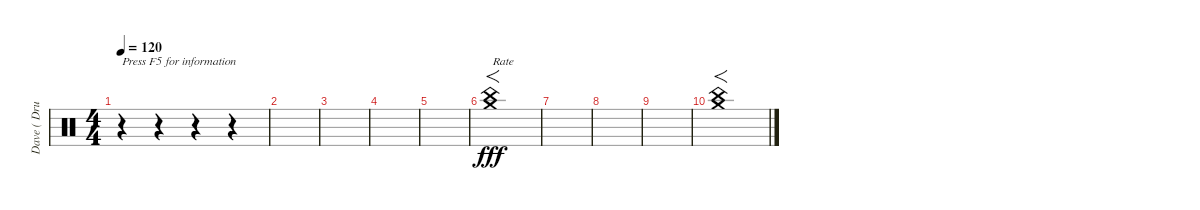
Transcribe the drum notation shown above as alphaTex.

\track ("Dave ( Drumm )" "Dave ( Dru") {instrument percussion}
\staff {score}
\articulation defaults
\ts (4 4)
\tempo 120
\clef neutral
\ks c
r.4{txt "Press F5 for information" dy fff} r.4 r.4 r.4 |
|
|
|
|
("China (hit)" "Crash medium (hit)").1{f txt "Rate"} |
|
|
|
("China (hit)" "Crash medium (hit)").1{f}
